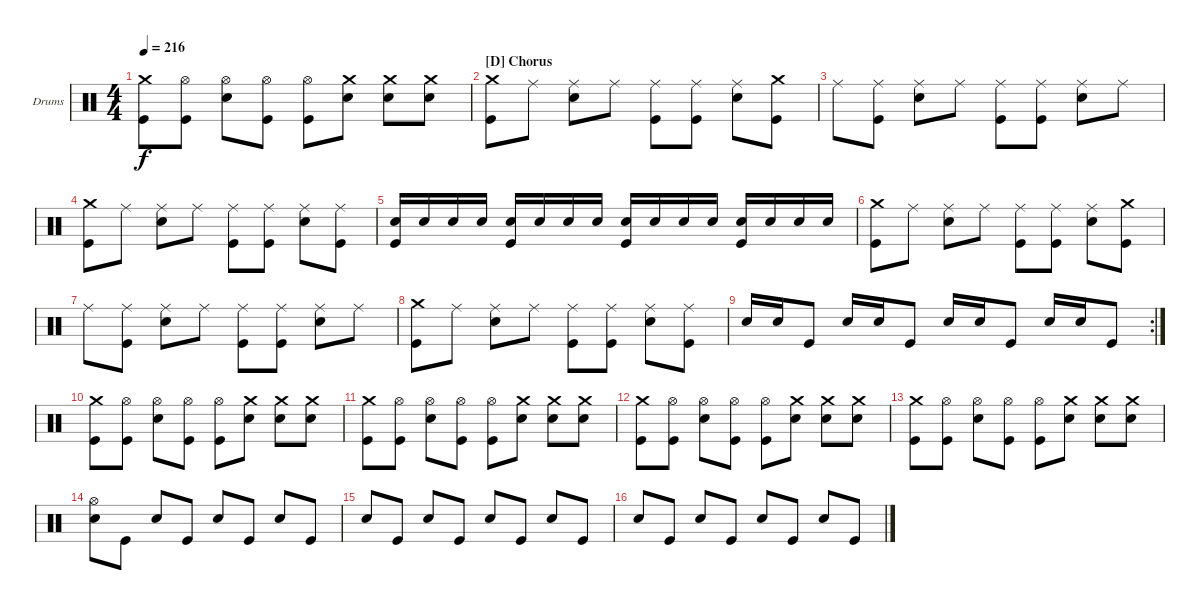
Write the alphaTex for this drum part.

\defaultSystemsLayout 4
\bracketExtendMode groupsimilarinstruments
\firstSystemTrackNameOrientation horizontal
\otherSystemsTrackNameOrientation horizontal
\track ("Drumkit" "Drums") {instrument percussion}
\staff {score}
\articulation defaults
\ts (4 4)
\tempo 216
\clef neutral
\ks c
("Crash medium (hit)" "Kick (hit)").8{dy f} ("Hi-Hat (open)" "Kick (hit)").8 ("Hi-Hat (open)" "Snare (hit) 2").8 ("Hi-Hat (open)" "Kick (hit)").8 ("Hi-Hat (open)" "Kick (hit)").8 ("Crash medium (hit)" "Snare (hit) 2").8 ("Crash medium (hit)" "Snare (hit) 2").8 ("Crash medium (hit)" "Snare (hit) 2").8 |
\section ("D" "Chorus")
("Crash medium (hit)" "Kick (hit)").8 "Ride (middle)".8 ("Ride (middle)" "Snare (hit) 2").8 "Ride (middle)".8 ("Ride (middle)" "Kick (hit)").8 ("Ride (middle)" "Kick (hit)").8 ("Ride (middle)" "Snare (hit) 2").8 ("Crash medium (hit)" "Kick (hit)").8 |
"Ride (middle)".8 ("Ride (middle)" "Kick (hit)").8 ("Ride (middle)" "Snare (hit) 2").8 "Ride (middle)".8 ("Ride (middle)" "Kick (hit)").8 ("Ride (middle)" "Kick (hit)").8 ("Ride (middle)" "Snare (hit) 2").8 "Ride (middle)".8 |
("Crash medium (hit)" "Kick (hit)").8 "Ride (middle)".8 ("Ride (middle)" "Snare (hit) 2").8 "Ride (middle)".8 ("Ride (middle)" "Kick (hit)").8 ("Ride (middle)" "Kick (hit)").8 ("Ride (middle)" "Snare (hit) 2").8 ("Ride (middle)" "Kick (hit)").8 |
("Snare (hit) 2" "Kick (hit)").16 "Snare (hit) 2".16 "Snare (hit) 2".16 "Snare (hit) 2".16 ("Snare (hit) 2" "Kick (hit)").16 "Snare (hit) 2".16 "Snare (hit) 2".16 "Snare (hit) 2".16 ("Snare (hit) 2" "Kick (hit)").16 "Snare (hit) 2".16 "Snare (hit) 2".16 "Snare (hit) 2".16 ("Snare (hit) 2" "Kick (hit)").16 "Snare (hit) 2".16 "Snare (hit) 2".16 "Snare (hit) 2".16 |
("Crash medium (hit)" "Kick (hit)").8 "Ride (middle)".8 ("Ride (middle)" "Snare (hit) 2").8 "Ride (middle)".8 ("Ride (middle)" "Kick (hit)").8 ("Ride (middle)" "Kick (hit)").8 ("Ride (middle)" "Snare (hit) 2").8 ("Crash medium (hit)" "Kick (hit)").8 |
"Ride (middle)".8 ("Ride (middle)" "Kick (hit)").8 ("Ride (middle)" "Snare (hit) 2").8 "Ride (middle)".8 ("Ride (middle)" "Kick (hit)").8 ("Ride (middle)" "Kick (hit)").8 ("Ride (middle)" "Snare (hit) 2").8 "Ride (middle)".8 |
("Crash medium (hit)" "Kick (hit)").8 "Ride (middle)".8 ("Ride (middle)" "Snare (hit) 2").8 "Ride (middle)".8 ("Ride (middle)" "Kick (hit)").8 ("Ride (middle)" "Kick (hit)").8 ("Ride (middle)" "Snare (hit) 2").8 ("Ride (middle)" "Kick (hit)").8 |
\rc 2 "Snare (hit) 2".16 "Snare (hit) 2".16 "Kick (hit)".8 "Snare (hit) 2".16 "Snare (hit) 2".16 "Kick (hit)".8 "Snare (hit) 2".16 "Snare (hit) 2".16 "Kick (hit)".8 "Snare (hit) 2".16 "Snare (hit) 2".16 "Kick (hit)".8
|
("Crash medium (hit)" "Kick (hit)").8 ("Hi-Hat (open)" "Kick (hit)").8 ("Hi-Hat (open)" "Snare (hit) 2").8 ("Hi-Hat (open)" "Kick (hit)").8 ("Hi-Hat (open)" "Kick (hit)").8 ("Crash medium (hit)" "Snare (hit) 2").8 ("Crash medium (hit)" "Snare (hit) 2").8 ("Crash medium (hit)" "Snare (hit) 2").8 |
("Crash medium (hit)" "Kick (hit)").8 ("Hi-Hat (open)" "Kick (hit)").8 ("Hi-Hat (open)" "Snare (hit) 2").8 ("Hi-Hat (open)" "Kick (hit)").8 ("Hi-Hat (open)" "Kick (hit)").8 ("Crash medium (hit)" "Snare (hit) 2").8 ("Crash medium (hit)" "Snare (hit) 2").8 ("Crash medium (hit)" "Snare (hit) 2").8 |
("Crash medium (hit)" "Kick (hit)").8 ("Hi-Hat (open)" "Kick (hit)").8 ("Hi-Hat (open)" "Snare (hit) 2").8 ("Hi-Hat (open)" "Kick (hit)").8 ("Hi-Hat (open)" "Kick (hit)").8 ("Crash medium (hit)" "Snare (hit) 2").8 ("Crash medium (hit)" "Snare (hit) 2").8 ("Crash medium (hit)" "Snare (hit) 2").8 |
("Crash medium (hit)" "Kick (hit)").8 ("Hi-Hat (open)" "Kick (hit)").8 ("Hi-Hat (open)" "Snare (hit) 2").8 ("Hi-Hat (open)" "Kick (hit)").8 ("Hi-Hat (open)" "Kick (hit)").8 ("Crash medium (hit)" "Snare (hit) 2").8 ("Crash medium (hit)" "Snare (hit) 2").8 ("Crash medium (hit)" "Snare (hit) 2").8 |
("Hi-Hat (open)" "Snare (hit) 2").8 "Kick (hit)".8 "Snare (hit) 2".8 "Kick (hit)".8 "Snare (hit) 2".8 "Kick (hit)".8 "Snare (hit) 2".8 "Kick (hit)".8 |
"Snare (hit) 2".8 "Kick (hit)".8 "Snare (hit) 2".8 "Kick (hit)".8 "Snare (hit) 2".8 "Kick (hit)".8 "Snare (hit) 2".8 "Kick (hit)".8 |
"Snare (hit) 2".8 "Kick (hit)".8 "Snare (hit) 2".8 "Kick (hit)".8 "Snare (hit) 2".8 "Kick (hit)".8 "Snare (hit) 2".8 "Kick (hit)".8
